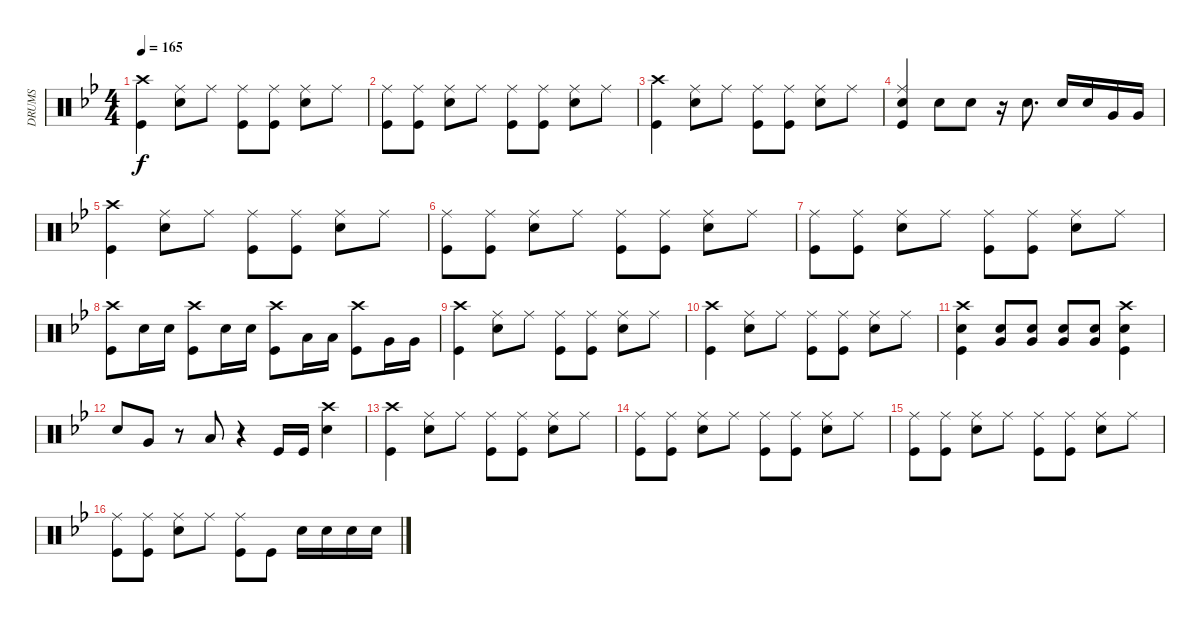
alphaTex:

\track ("DRUMS" "DRUMS") {instrument percussion}
\staff {score}
\articulation defaults
\ts (4 4)
\tempo 165
\clef neutral
\ks bb
("Crash high (hit)" "Kick (hit)").4{dy f} ("Ride (middle)" "Electric Snare (hit)").8 "Ride (middle)".8 ("Ride (middle)" "Kick (hit)").8 ("Ride (middle)" "Kick (hit)").8 ("Ride (middle)" "Electric Snare (hit)").8 "Ride (middle)".8 |
("Ride (middle)" "Kick (hit)").8 ("Ride (middle)" "Kick (hit)").8 ("Ride (middle)" "Electric Snare (hit)").8 "Ride (middle)".8 ("Ride (middle)" "Kick (hit)").8 ("Ride (middle)" "Kick (hit)").8 ("Ride (middle)" "Electric Snare (hit)").8 "Ride (middle)".8 |
("Crash high (hit)" "Kick (hit)").4 ("Ride (middle)" "Electric Snare (hit)").8 "Ride (middle)".8 ("Ride (middle)" "Kick (hit)").8 ("Ride (middle)" "Kick (hit)").8 ("Ride (middle)" "Electric Snare (hit)").8 "Ride (middle)".8 |
("Ride (middle)" "Electric Snare (hit)" "Kick (hit)").4 "Electric Snare (hit)".8 "Electric Snare (hit)".8 r.16 "Electric Snare (hit)".8{d} "Electric Snare (hit)".16 "Electric Snare (hit)".16 "Very Low Tom (hit)".16 "Very Low Tom (hit)".16 |
("Crash high (hit)" "Kick (hit)").4 ("Ride (middle)" "Electric Snare (hit)").8 "Ride (middle)".8 ("Ride (middle)" "Kick (hit)").8 ("Ride (middle)" "Kick (hit)").8 ("Ride (middle)" "Electric Snare (hit)").8 "Ride (middle)".8 |
("Ride (middle)" "Kick (hit)").8 ("Ride (middle)" "Kick (hit)").8 ("Ride (middle)" "Electric Snare (hit)").8 "Ride (middle)".8 ("Ride (middle)" "Kick (hit)").8 ("Ride (middle)" "Kick (hit)").8 ("Ride (middle)" "Electric Snare (hit)").8 "Ride (middle)".8 |
("Ride (middle)" "Kick (hit)").8 ("Ride (middle)" "Kick (hit)").8 ("Ride (middle)" "Electric Snare (hit)").8 "Ride (middle)".8 ("Ride (middle)" "Kick (hit)").8 ("Ride (middle)" "Kick (hit)").8 ("Ride (middle)" "Electric Snare (hit)").8 "Ride (middle)".8 |
("Crash high (hit)" "Kick (hit)").8 "Electric Snare (hit)".16 "Electric Snare (hit)".16 ("Crash high (hit)" "Kick (hit)").8 "Electric Snare (hit)".16 "Electric Snare (hit)".16 ("Crash high (hit)" "Kick (hit)").8 "Low Tom (hit)".16 "Low Tom (hit)".16 ("Crash high (hit)" "Kick (hit)").8 "Very Low Tom (hit)".16 "Very Low Tom (hit)".16 |
("Crash high (hit)" "Kick (hit)").4 ("Ride (middle)" "Electric Snare (hit)").8 "Ride (middle)".8 ("Ride (middle)" "Kick (hit)").8 ("Ride (middle)" "Kick (hit)").8 ("Ride (middle)" "Electric Snare (hit)").8 "Ride (middle)".8 |
("Crash high (hit)" "Kick (hit)").4 ("Ride (middle)" "Electric Snare (hit)").8 "Ride (middle)".8 ("Ride (middle)" "Kick (hit)").8 ("Ride (middle)" "Kick (hit)").8 ("Ride (middle)" "Electric Snare (hit)").8 "Ride (middle)".8 |
("Crash high (hit)" "Electric Snare (hit)" "Kick (hit)").4 ("Electric Snare (hit)" "Very Low Tom (hit)").8 ("Electric Snare (hit)" "Very Low Tom (hit)").8 ("Electric Snare (hit)" "Very Low Tom (hit)").8 ("Electric Snare (hit)" "Very Low Tom (hit)").8 ("Crash high (hit)" "Electric Snare (hit)" "Kick (hit)").4 |
"Electric Snare (hit)".8 "Very Low Tom (hit)".8 r.8 "Low Floor Tom (hit)".8 r.4 "Kick (hit)".16 "Kick (hit)".16 ("Crash high (hit)" "Electric Snare (hit)").4 |
("Crash high (hit)" "Kick (hit)").4 ("Ride (middle)" "Electric Snare (hit)").8 "Ride (middle)".8 ("Ride (middle)" "Kick (hit)").8 ("Ride (middle)" "Kick (hit)").8 ("Ride (middle)" "Electric Snare (hit)").8 "Ride (middle)".8 |
("Ride (middle)" "Kick (hit)").8 ("Ride (middle)" "Kick (hit)").8 ("Ride (middle)" "Electric Snare (hit)").8 "Ride (middle)".8 ("Ride (middle)" "Kick (hit)").8 ("Ride (middle)" "Kick (hit)").8 ("Ride (middle)" "Electric Snare (hit)").8 "Ride (middle)".8 |
("Ride (middle)" "Kick (hit)").8 ("Ride (middle)" "Kick (hit)").8 ("Ride (middle)" "Electric Snare (hit)").8 "Ride (middle)".8 ("Ride (middle)" "Kick (hit)").8 ("Ride (middle)" "Kick (hit)").8 ("Ride (middle)" "Electric Snare (hit)").8 "Ride (middle)".8 |
("Ride (middle)" "Kick (hit)").8 ("Ride (middle)" "Kick (hit)").8 ("Ride (middle)" "Electric Snare (hit)").8 "Ride (middle)".8 ("Ride (middle)" "Kick (hit)").8 "Kick (hit)".8 "Electric Snare (hit)".16 "Electric Snare (hit)".16 "Electric Snare (hit)".16 "Electric Snare (hit)".16
